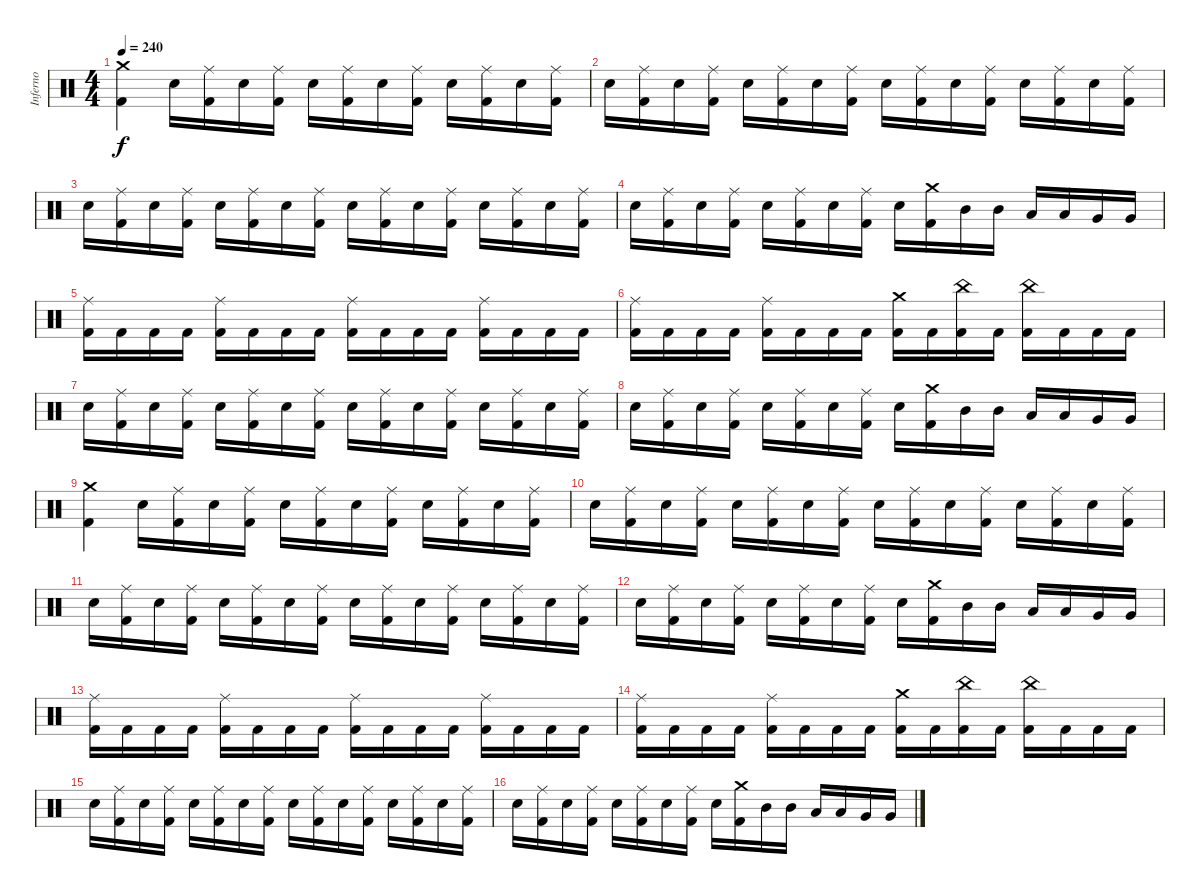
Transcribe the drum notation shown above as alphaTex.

\track ("Inferno" "Inferno") {instrument percussion}
\staff {score}
\articulation defaults
\ts (4 4)
\tempo 240
\clef neutral
\ks c
("Crash medium (hit)" "Kick (hit) 2").4{dy f} "Snare (hit) 2".16 ("Ride (middle)" "Kick (hit) 2").16 "Snare (hit) 2".16 ("Ride (middle)" "Kick (hit) 2").16 "Snare (hit) 2".16 ("Ride (middle)" "Kick (hit) 2").16 "Snare (hit) 2".16 ("Ride (middle)" "Kick (hit) 2").16 "Snare (hit) 2".16 ("Ride (middle)" "Kick (hit) 2").16 "Snare (hit) 2".16 ("Ride (middle)" "Kick (hit) 2").16 |
"Snare (hit) 2".16 ("Ride (middle)" "Kick (hit) 2").16 "Snare (hit) 2".16 ("Ride (middle)" "Kick (hit) 2").16 "Snare (hit) 2".16 ("Ride (middle)" "Kick (hit) 2").16 "Snare (hit) 2".16 ("Ride (middle)" "Kick (hit) 2").16 "Snare (hit) 2".16 ("Ride (middle)" "Kick (hit) 2").16 "Snare (hit) 2".16 ("Ride (middle)" "Kick (hit) 2").16 "Snare (hit) 2".16 ("Ride (middle)" "Kick (hit) 2").16 "Snare (hit) 2".16 ("Ride (middle)" "Kick (hit) 2").16 |
"Snare (hit) 2".16 ("Ride (middle)" "Kick (hit) 2").16 "Snare (hit) 2".16 ("Ride (middle)" "Kick (hit) 2").16 "Snare (hit) 2".16 ("Ride (middle)" "Kick (hit) 2").16 "Snare (hit) 2".16 ("Ride (middle)" "Kick (hit) 2").16 "Snare (hit) 2".16 ("Ride (middle)" "Kick (hit) 2").16 "Snare (hit) 2".16 ("Ride (middle)" "Kick (hit) 2").16 "Snare (hit) 2".16 ("Ride (middle)" "Kick (hit) 2").16 "Snare (hit) 2".16 ("Ride (middle)" "Kick (hit) 2").16 |
"Snare (hit) 2".16 ("Ride (middle)" "Kick (hit) 2").16 "Snare (hit) 2".16 ("Ride (middle)" "Kick (hit) 2").16 "Snare (hit) 2".16 ("Ride (middle)" "Kick (hit) 2").16 "Snare (hit) 2".16 ("Ride (middle)" "Kick (hit) 2").16 "Snare (hit) 2".16 ("Crash medium (hit)" "Kick (hit) 2").16 "Mid Tom (hit)".16 "Mid Tom (hit)".16 "Low Tom (hit)".16 "Low Tom (hit)".16 "Very Low Tom (hit)".16 "Very Low Tom (hit)".16 |
("Ride (middle)" "Kick (hit) 2").16 "Kick (hit) 2".16 "Kick (hit) 2".16 "Kick (hit) 2".16 ("Ride (middle)" "Kick (hit) 2").16 "Kick (hit) 2".16 "Kick (hit) 2".16 "Kick (hit) 2".16 ("Ride (middle)" "Kick (hit) 2").16 "Kick (hit) 2".16 "Kick (hit) 2".16 "Kick (hit) 2".16 ("Ride (middle)" "Kick (hit) 2").16 "Kick (hit) 2".16 "Kick (hit) 2".16 "Kick (hit) 2".16 |
("Ride (middle)" "Kick (hit) 2").16 "Kick (hit) 2".16 "Kick (hit) 2".16 "Kick (hit) 2".16 ("Ride (middle)" "Kick (hit) 2").16 "Kick (hit) 2".16 "Kick (hit) 2".16 "Kick (hit) 2".16 ("Crash medium (hit)" "Kick (hit) 2").16 "Kick (hit) 2".16 ("China (hit)" "Kick (hit) 2").16 "Kick (hit) 2".16 ("China (hit)" "Kick (hit) 2").16 "Kick (hit) 2".16 "Kick (hit) 2".16 "Kick (hit) 2".16 |
"Snare (hit) 2".16 ("Ride (middle)" "Kick (hit) 2").16 "Snare (hit) 2".16 ("Ride (middle)" "Kick (hit) 2").16 "Snare (hit) 2".16 ("Ride (middle)" "Kick (hit) 2").16 "Snare (hit) 2".16 ("Ride (middle)" "Kick (hit) 2").16 "Snare (hit) 2".16 ("Ride (middle)" "Kick (hit) 2").16 "Snare (hit) 2".16 ("Ride (middle)" "Kick (hit) 2").16 "Snare (hit) 2".16 ("Ride (middle)" "Kick (hit) 2").16 "Snare (hit) 2".16 ("Ride (middle)" "Kick (hit) 2").16 |
"Snare (hit) 2".16 ("Ride (middle)" "Kick (hit) 2").16 "Snare (hit) 2".16 ("Ride (middle)" "Kick (hit) 2").16 "Snare (hit) 2".16 ("Ride (middle)" "Kick (hit) 2").16 "Snare (hit) 2".16 ("Ride (middle)" "Kick (hit) 2").16 "Snare (hit) 2".16 ("Crash medium (hit)" "Kick (hit) 2").16 "Mid Tom (hit)".16 "Mid Tom (hit)".16 "Low Tom (hit)".16 "Low Tom (hit)".16 "Very Low Tom (hit)".16 "Very Low Tom (hit)".16 |
("Crash medium (hit)" "Kick (hit) 2").4 "Snare (hit) 2".16 ("Ride (middle)" "Kick (hit) 2").16 "Snare (hit) 2".16 ("Ride (middle)" "Kick (hit) 2").16 "Snare (hit) 2".16 ("Ride (middle)" "Kick (hit) 2").16 "Snare (hit) 2".16 ("Ride (middle)" "Kick (hit) 2").16 "Snare (hit) 2".16 ("Ride (middle)" "Kick (hit) 2").16 "Snare (hit) 2".16 ("Ride (middle)" "Kick (hit) 2").16 |
"Snare (hit) 2".16 ("Ride (middle)" "Kick (hit) 2").16 "Snare (hit) 2".16 ("Ride (middle)" "Kick (hit) 2").16 "Snare (hit) 2".16 ("Ride (middle)" "Kick (hit) 2").16 "Snare (hit) 2".16 ("Ride (middle)" "Kick (hit) 2").16 "Snare (hit) 2".16 ("Ride (middle)" "Kick (hit) 2").16 "Snare (hit) 2".16 ("Ride (middle)" "Kick (hit) 2").16 "Snare (hit) 2".16 ("Ride (middle)" "Kick (hit) 2").16 "Snare (hit) 2".16 ("Ride (middle)" "Kick (hit) 2").16 |
"Snare (hit) 2".16 ("Ride (middle)" "Kick (hit) 2").16 "Snare (hit) 2".16 ("Ride (middle)" "Kick (hit) 2").16 "Snare (hit) 2".16 ("Ride (middle)" "Kick (hit) 2").16 "Snare (hit) 2".16 ("Ride (middle)" "Kick (hit) 2").16 "Snare (hit) 2".16 ("Ride (middle)" "Kick (hit) 2").16 "Snare (hit) 2".16 ("Ride (middle)" "Kick (hit) 2").16 "Snare (hit) 2".16 ("Ride (middle)" "Kick (hit) 2").16 "Snare (hit) 2".16 ("Ride (middle)" "Kick (hit) 2").16 |
"Snare (hit) 2".16 ("Ride (middle)" "Kick (hit) 2").16 "Snare (hit) 2".16 ("Ride (middle)" "Kick (hit) 2").16 "Snare (hit) 2".16 ("Ride (middle)" "Kick (hit) 2").16 "Snare (hit) 2".16 ("Ride (middle)" "Kick (hit) 2").16 "Snare (hit) 2".16 ("Crash medium (hit)" "Kick (hit) 2").16 "Mid Tom (hit)".16 "Mid Tom (hit)".16 "Low Tom (hit)".16 "Low Tom (hit)".16 "Very Low Tom (hit)".16 "Very Low Tom (hit)".16 |
("Ride (middle)" "Kick (hit) 2").16 "Kick (hit) 2".16 "Kick (hit) 2".16 "Kick (hit) 2".16 ("Ride (middle)" "Kick (hit) 2").16 "Kick (hit) 2".16 "Kick (hit) 2".16 "Kick (hit) 2".16 ("Ride (middle)" "Kick (hit) 2").16 "Kick (hit) 2".16 "Kick (hit) 2".16 "Kick (hit) 2".16 ("Ride (middle)" "Kick (hit) 2").16 "Kick (hit) 2".16 "Kick (hit) 2".16 "Kick (hit) 2".16 |
("Ride (middle)" "Kick (hit) 2").16 "Kick (hit) 2".16 "Kick (hit) 2".16 "Kick (hit) 2".16 ("Ride (middle)" "Kick (hit) 2").16 "Kick (hit) 2".16 "Kick (hit) 2".16 "Kick (hit) 2".16 ("Crash medium (hit)" "Kick (hit) 2").16 "Kick (hit) 2".16 ("China (hit)" "Kick (hit) 2").16 "Kick (hit) 2".16 ("China (hit)" "Kick (hit) 2").16 "Kick (hit) 2".16 "Kick (hit) 2".16 "Kick (hit) 2".16 |
"Snare (hit) 2".16 ("Ride (middle)" "Kick (hit) 2").16 "Snare (hit) 2".16 ("Ride (middle)" "Kick (hit) 2").16 "Snare (hit) 2".16 ("Ride (middle)" "Kick (hit) 2").16 "Snare (hit) 2".16 ("Ride (middle)" "Kick (hit) 2").16 "Snare (hit) 2".16 ("Ride (middle)" "Kick (hit) 2").16 "Snare (hit) 2".16 ("Ride (middle)" "Kick (hit) 2").16 "Snare (hit) 2".16 ("Ride (middle)" "Kick (hit) 2").16 "Snare (hit) 2".16 ("Ride (middle)" "Kick (hit) 2").16 |
"Snare (hit) 2".16 ("Ride (middle)" "Kick (hit) 2").16 "Snare (hit) 2".16 ("Ride (middle)" "Kick (hit) 2").16 "Snare (hit) 2".16 ("Ride (middle)" "Kick (hit) 2").16 "Snare (hit) 2".16 ("Ride (middle)" "Kick (hit) 2").16 "Snare (hit) 2".16 ("Crash medium (hit)" "Kick (hit) 2").16 "Mid Tom (hit)".16 "Mid Tom (hit)".16 "Low Tom (hit)".16 "Low Tom (hit)".16 "Very Low Tom (hit)".16 "Very Low Tom (hit)".16
